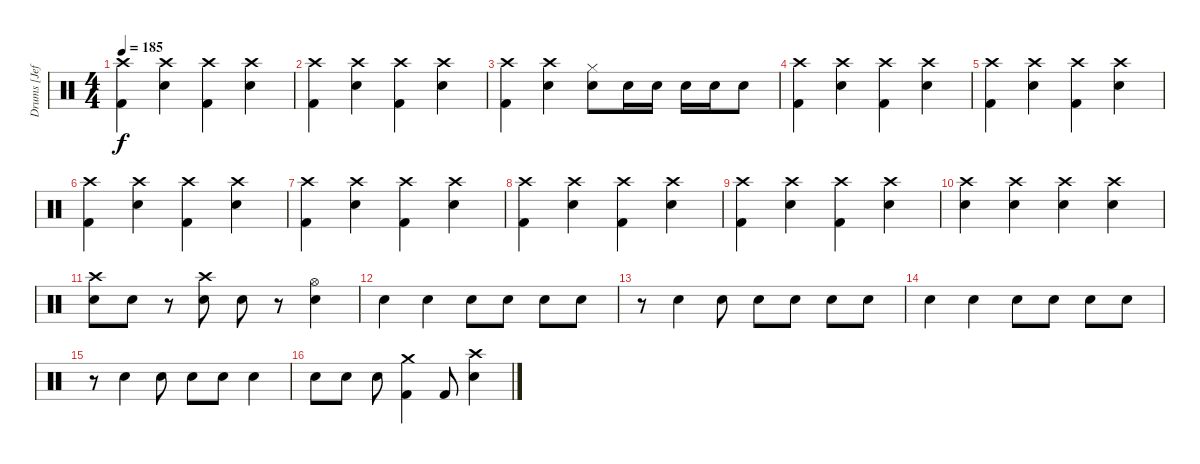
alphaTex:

\track ("Drums [Jeff]" "Drums [Jef") {instrument percussion}
\staff {score}
\articulation defaults
\ts (4 4)
\tempo 185
\clef neutral
\ks c
("Crash high (hit)" "Kick (hit) 2").4{dy f} ("Crash high (hit)" "Electric Snare (hit)").4 ("Crash high (hit)" "Kick (hit) 2").4 ("Crash high (hit)" "Electric Snare (hit)").4 |
("Crash high (hit)" "Kick (hit) 2").4 ("Crash high (hit)" "Electric Snare (hit)").4 ("Crash high (hit)" "Kick (hit) 2").4 ("Crash high (hit)" "Electric Snare (hit)").4 |
("Crash high (hit)" "Kick (hit) 2").4 ("Crash high (hit)" "Electric Snare (hit)").4 ("Hi-Hat (closed)" "Electric Snare (hit)").8 "Electric Snare (hit)".16 "Electric Snare (hit)".16 "Electric Snare (hit)".16 "Electric Snare (hit)".16 "Electric Snare (hit)".8 |
("Crash high (hit)" "Kick (hit) 2").4 ("Crash high (hit)" "Electric Snare (hit)").4 ("Crash high (hit)" "Kick (hit) 2").4 ("Crash high (hit)" "Electric Snare (hit)").4 |
("Crash high (hit)" "Kick (hit) 2").4 ("Crash high (hit)" "Electric Snare (hit)").4 ("Crash high (hit)" "Kick (hit) 2").4 ("Crash high (hit)" "Electric Snare (hit)").4 |
("Crash high (hit)" "Kick (hit) 2").4 ("Crash high (hit)" "Electric Snare (hit)").4 ("Crash high (hit)" "Kick (hit) 2").4 ("Crash high (hit)" "Electric Snare (hit)").4 |
("Crash high (hit)" "Kick (hit) 2").4 ("Crash high (hit)" "Electric Snare (hit)").4 ("Crash high (hit)" "Kick (hit) 2").4 ("Crash high (hit)" "Electric Snare (hit)").4 |
("Crash high (hit)" "Kick (hit) 2").4 ("Crash high (hit)" "Electric Snare (hit)").4 ("Crash high (hit)" "Kick (hit) 2").4 ("Crash high (hit)" "Electric Snare (hit)").4 |
("Crash high (hit)" "Kick (hit) 2").4 ("Crash high (hit)" "Electric Snare (hit)").4 ("Crash high (hit)" "Kick (hit) 2").4 ("Crash high (hit)" "Electric Snare (hit)").4 |
("Crash high (hit)" "Electric Snare (hit)").4 ("Crash high (hit)" "Electric Snare (hit)").4 ("Crash high (hit)" "Electric Snare (hit)").4 ("Crash high (hit)" "Electric Snare (hit)").4 |
("Crash high (hit)" "Electric Snare (hit)").8 "Electric Snare (hit)".8 r.8 ("Crash high (hit)" "Electric Snare (hit)").8 "Electric Snare (hit)".8 r.8 ("Hi-Hat (open)" "Electric Snare (hit)").4 |
"Electric Snare (hit)".4 "Electric Snare (hit)".4 "Electric Snare (hit)".8 "Electric Snare (hit)".8 "Electric Snare (hit)".8 "Electric Snare (hit)".8 |
r.8 "Electric Snare (hit)".4 "Electric Snare (hit)".8 "Electric Snare (hit)".8 "Electric Snare (hit)".8 "Electric Snare (hit)".8 "Electric Snare (hit)".8 |
"Electric Snare (hit)".4 "Electric Snare (hit)".4 "Electric Snare (hit)".8 "Electric Snare (hit)".8 "Electric Snare (hit)".8 "Electric Snare (hit)".8 |
r.8 "Electric Snare (hit)".4 "Electric Snare (hit)".8 "Electric Snare (hit)".8 "Electric Snare (hit)".8 "Electric Snare (hit)".4 |
"Electric Snare (hit)".8 "Electric Snare (hit)".8 "Electric Snare (hit)".8 ("Crash medium (hit)" "Kick (hit) 2").4 "Kick (hit) 2".8 ("Crash high (hit)" "Electric Snare (hit)").4
